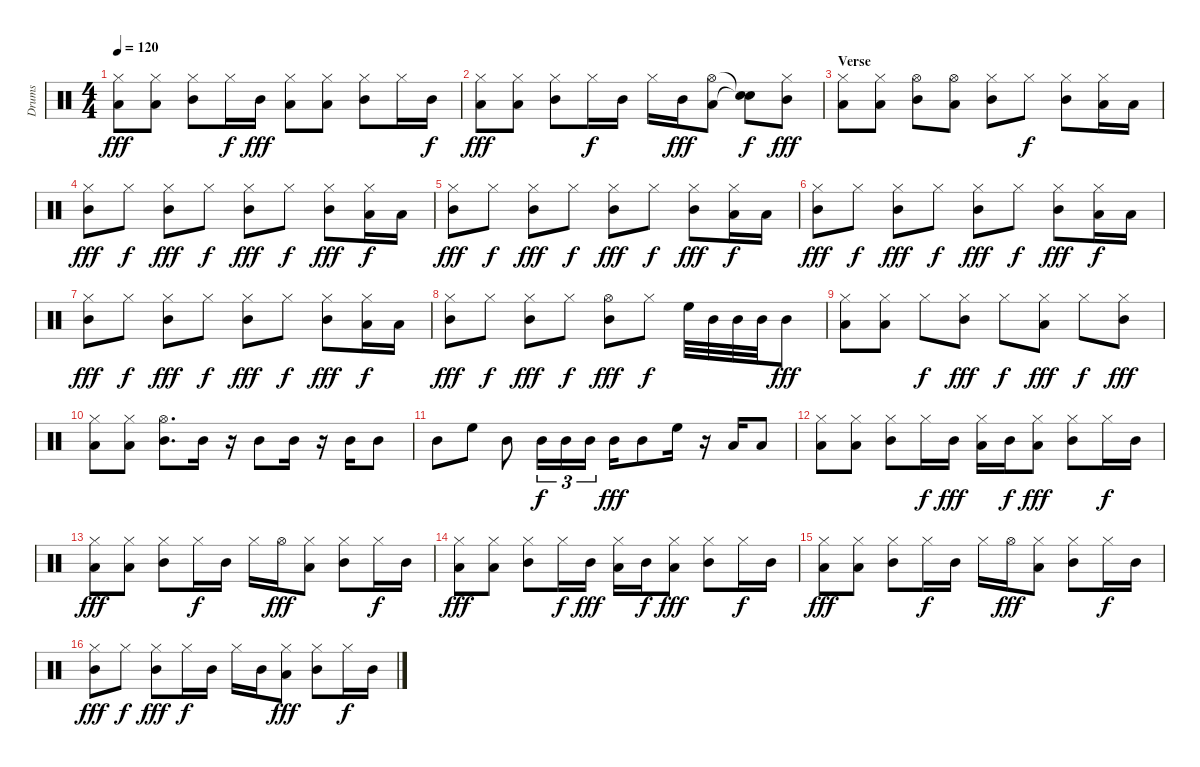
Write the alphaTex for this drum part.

\track ("Drums" "Drums") {instrument percussion}
\staff {score}
\articulation defaults
\ts (4 4)
\tempo 120
\clef neutral
\ks c
("Hi-Hat (closed)" "Low Floor Tom (hit)").8{dy fff} ("Hi-Hat (closed)" "Low Floor Tom (hit)").8 ("Hi-Hat (closed)" "Mid Tom (hit)").8 "Hi-Hat (closed)".16{dy f} "Mid Tom (hit)".16{dy fff} ("Hi-Hat (closed)" "Low Floor Tom (hit)").8 ("Hi-Hat (closed)" "Low Floor Tom (hit)").8 ("Hi-Hat (closed)" "Mid Tom (hit)").8 "Hi-Hat (closed)".16 "Mid Tom (hit)".16{dy f} |
("Hi-Hat (closed)" "Low Floor Tom (hit)").8{dy fff} ("Hi-Hat (closed)" "Low Floor Tom (hit)").8 ("Hi-Hat (closed)" "Mid Tom (hit)").8 "Hi-Hat (closed)".16{dy f} "Mid Tom (hit)".16 "Hi-Hat (closed)".16 "Mid Tom (hit)".16{dy fff} ("Hi-Hat (open)" "Low Floor Tom (hit)").8 ("Snare (hit)"{t} "Snare (hit)"{t}).8{dy f} ("Hi-Hat (closed)" "Mid Tom (hit)").8{dy fff} |
\section ("" "Verse")
("Hi-Hat (closed)" "Low Floor Tom (hit)").8 ("Hi-Hat (closed)" "Low Floor Tom (hit)").8 ("Hi-Hat (open)" "Mid Tom (hit)").8 ("Hi-Hat (open)" "Low Floor Tom (hit)").8 ("Hi-Hat (closed)" "Mid Tom (hit)").8 "Hi-Hat (closed)".8{dy f} ("Hi-Hat (closed)" "Mid Tom (hit)").8 ("Hi-Hat (closed)" "Low Floor Tom (hit)").16 "Low Floor Tom (hit)".16 |
("Hi-Hat (closed)" "Mid Tom (hit)").8{dy fff} "Hi-Hat (closed)".8{dy f} ("Hi-Hat (closed)" "Mid Tom (hit)").8{dy fff} "Hi-Hat (closed)".8{dy f} ("Hi-Hat (closed)" "Mid Tom (hit)").8{dy fff} "Hi-Hat (closed)".8{dy f} ("Hi-Hat (closed)" "Mid Tom (hit)").8{dy fff} ("Hi-Hat (closed)" "Low Floor Tom (hit)").16{dy f} "Low Floor Tom (hit)".16 |
("Hi-Hat (closed)" "Mid Tom (hit)").8{dy fff} "Hi-Hat (closed)".8{dy f} ("Hi-Hat (closed)" "Mid Tom (hit)").8{dy fff} "Hi-Hat (closed)".8{dy f} ("Hi-Hat (closed)" "Mid Tom (hit)").8{dy fff} "Hi-Hat (closed)".8{dy f} ("Hi-Hat (closed)" "Mid Tom (hit)").8{dy fff} ("Hi-Hat (closed)" "Low Floor Tom (hit)").16{dy f} "Low Floor Tom (hit)".16 |
("Hi-Hat (closed)" "Mid Tom (hit)").8{dy fff} "Hi-Hat (closed)".8{dy f} ("Hi-Hat (closed)" "Mid Tom (hit)").8{dy fff} "Hi-Hat (closed)".8{dy f} ("Hi-Hat (closed)" "Mid Tom (hit)").8{dy fff} "Hi-Hat (closed)".8{dy f} ("Hi-Hat (closed)" "Mid Tom (hit)").8{dy fff} ("Hi-Hat (closed)" "Low Floor Tom (hit)").16{dy f} "Low Floor Tom (hit)".16 |
("Hi-Hat (closed)" "Mid Tom (hit)").8{dy fff} "Hi-Hat (closed)".8{dy f} ("Hi-Hat (closed)" "Mid Tom (hit)").8{dy fff} "Hi-Hat (closed)".8{dy f} ("Hi-Hat (closed)" "Mid Tom (hit)").8{dy fff} "Hi-Hat (closed)".8{dy f} ("Hi-Hat (closed)" "Mid Tom (hit)").8{dy fff} ("Hi-Hat (closed)" "Low Floor Tom (hit)").16{dy f} "Low Floor Tom (hit)".16 |
("Hi-Hat (closed)" "Mid Tom (hit)").8{dy fff} "Hi-Hat (closed)".8{dy f} ("Hi-Hat (closed)" "Mid Tom (hit)").8{dy fff} "Hi-Hat (closed)".8{dy f} ("Hi-Hat (open)" "Mid Tom (hit)").8{dy fff} "Hi-Hat (closed)".8{dy f} "High Floor Tom (hit)".32 "Mid Tom (hit)".32 "Mid Tom (hit)".32 "Mid Tom (hit)".32 "Mid Tom (hit)".8{dy fff} |
("Hi-Hat (closed)" "Low Floor Tom (hit)").8 ("Hi-Hat (closed)" "Low Floor Tom (hit)").8 "Hi-Hat (closed)".8{dy f} ("Hi-Hat (closed)" "Mid Tom (hit)").8{dy fff} "Hi-Hat (closed)".8{dy f} ("Hi-Hat (closed)" "Low Floor Tom (hit)").8{dy fff} "Hi-Hat (closed)".8{dy f} ("Hi-Hat (closed)" "Mid Tom (hit)").8{dy fff} |
("Hi-Hat (closed)" "Low Floor Tom (hit)").8 ("Hi-Hat (closed)" "Low Floor Tom (hit)").8 ("Hi-Hat (open)" "Mid Tom (hit)").8{d} "Mid Tom (hit)".16 r.16 "Mid Tom (hit)".8 "Mid Tom (hit)".16 r.16 "Mid Tom (hit)".16 "Mid Tom (hit)".8 |
"Mid Tom (hit)".8 "High Floor Tom (hit)".8 "Mid Tom (hit)".8 "Mid Tom (hit)".16{tu (3 2) dy f} "Mid Tom (hit)".16{tu (3 2)} "Mid Tom (hit)".16{tu (3 2)} "Mid Tom (hit)".16{dy fff} "Mid Tom (hit)".8 "High Floor Tom (hit)".16 r.16 "Low Tom (hit)".16 "Low Tom (hit)".8 |
("Hi-Hat (closed)" "Low Floor Tom (hit)").8 ("Hi-Hat (closed)" "Low Floor Tom (hit)").8 ("Hi-Hat (closed)" "Mid Tom (hit)").8 "Hi-Hat (closed)".16{dy f} "Mid Tom (hit)".16{dy fff} ("Hi-Hat (closed)" "Low Floor Tom (hit)").16 "Mid Tom (hit)".16{dy f} ("Hi-Hat (closed)" "Low Floor Tom (hit)").8{dy fff} ("Hi-Hat (closed)" "Mid Tom (hit)").8 "Hi-Hat (closed)".16{dy f} "Mid Tom (hit)".16 |
("Hi-Hat (closed)" "Low Floor Tom (hit)").8{dy fff} ("Hi-Hat (closed)" "Low Floor Tom (hit)").8 ("Hi-Hat (closed)" "Mid Tom (hit)").8 "Hi-Hat (closed)".16{dy f} "Mid Tom (hit)".16 "Hi-Hat (closed)".16 "Hi-Hat (open)".16{dy fff} ("Hi-Hat (closed)" "Low Floor Tom (hit)").8 ("Hi-Hat (closed)" "Mid Tom (hit)").8 "Hi-Hat (closed)".16{dy f} "Mid Tom (hit)".16 |
("Hi-Hat (closed)" "Low Floor Tom (hit)").8{dy fff} ("Hi-Hat (closed)" "Low Floor Tom (hit)").8 ("Hi-Hat (closed)" "Mid Tom (hit)").8 "Hi-Hat (closed)".16{dy f} "Mid Tom (hit)".16{dy fff} ("Hi-Hat (closed)" "Low Floor Tom (hit)").16 "Mid Tom (hit)".16{dy f} ("Hi-Hat (closed)" "Low Floor Tom (hit)").8{dy fff} ("Hi-Hat (closed)" "Mid Tom (hit)").8 "Hi-Hat (closed)".16{dy f} "Mid Tom (hit)".16 |
("Hi-Hat (closed)" "Low Floor Tom (hit)").8{dy fff} ("Hi-Hat (closed)" "Low Floor Tom (hit)").8 ("Hi-Hat (closed)" "Mid Tom (hit)").8 "Hi-Hat (closed)".16{dy f} "Mid Tom (hit)".16 "Hi-Hat (closed)".16 "Hi-Hat (open)".16{dy fff} ("Hi-Hat (closed)" "Low Floor Tom (hit)").8 ("Hi-Hat (closed)" "Mid Tom (hit)").8 "Hi-Hat (closed)".16{dy f} "Mid Tom (hit)".16 |
("Hi-Hat (closed)" "Mid Tom (hit)").8{dy fff} "Hi-Hat (closed)".8{dy f} ("Hi-Hat (closed)" "Mid Tom (hit)").8{dy fff} "Hi-Hat (closed)".16{dy f} "Mid Tom (hit)".16 "Hi-Hat (closed)".16 "Mid Tom (hit)".16 ("Hi-Hat (closed)" "Low Floor Tom (hit)").8{dy fff} ("Hi-Hat (closed)" "Mid Tom (hit)").8 "Hi-Hat (closed)".16{dy f} "Mid Tom (hit)".16
